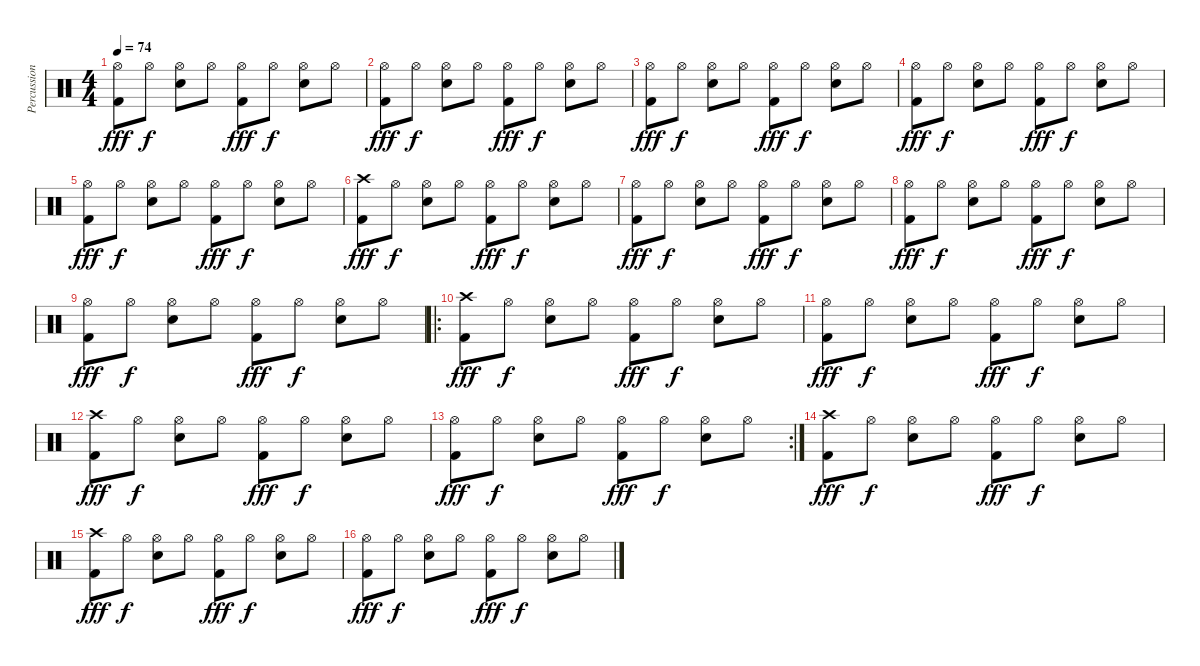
\track ("Percussion" "Percussion") {instrument percussion}
\staff {score}
\articulation defaults
\ts (4 4)
\tempo 74
\clef neutral
\ks c
("Hi-Hat (open)" "Kick (hit) 2").8{dy fff} "Hi-Hat (open)".8{dy f} ("Hi-Hat (open)" "Snare (hit) 2").8 "Hi-Hat (open)".8 ("Hi-Hat (open)" "Kick (hit) 2").8{dy fff} "Hi-Hat (open)".8{dy f} ("Hi-Hat (open)" "Snare (hit) 2").8 "Hi-Hat (open)".8 |
("Hi-Hat (open)" "Kick (hit) 2").8{dy fff} "Hi-Hat (open)".8{dy f} ("Hi-Hat (open)" "Snare (hit) 2").8 "Hi-Hat (open)".8 ("Hi-Hat (open)" "Kick (hit) 2").8{dy fff} "Hi-Hat (open)".8{dy f} ("Hi-Hat (open)" "Snare (hit) 2").8 "Hi-Hat (open)".8 |
("Hi-Hat (open)" "Kick (hit) 2").8{dy fff} "Hi-Hat (open)".8{dy f} ("Hi-Hat (open)" "Snare (hit) 2").8 "Hi-Hat (open)".8 ("Hi-Hat (open)" "Kick (hit) 2").8{dy fff} "Hi-Hat (open)".8{dy f} ("Hi-Hat (open)" "Snare (hit) 2").8 "Hi-Hat (open)".8 |
("Hi-Hat (open)" "Kick (hit) 2").8{dy fff} "Hi-Hat (open)".8{dy f} ("Hi-Hat (open)" "Snare (hit) 2").8 "Hi-Hat (open)".8 ("Hi-Hat (open)" "Kick (hit) 2").8{dy fff} "Hi-Hat (open)".8{dy f} ("Hi-Hat (open)" "Snare (hit) 2").8 "Hi-Hat (open)".8 |
("Hi-Hat (open)" "Kick (hit) 2").8{dy fff} "Hi-Hat (open)".8{dy f} ("Hi-Hat (open)" "Snare (hit) 2").8 "Hi-Hat (open)".8 ("Hi-Hat (open)" "Kick (hit) 2").8{dy fff} "Hi-Hat (open)".8{dy f} ("Hi-Hat (open)" "Snare (hit) 2").8 "Hi-Hat (open)".8 |
("Crash high (hit)" "Kick (hit) 2").8{dy fff} "Hi-Hat (open)".8{dy f} ("Hi-Hat (open)" "Snare (hit) 2").8 "Hi-Hat (open)".8 ("Hi-Hat (open)" "Kick (hit) 2").8{dy fff} "Hi-Hat (open)".8{dy f} ("Hi-Hat (open)" "Snare (hit) 2").8 "Hi-Hat (open)".8 |
("Hi-Hat (open)" "Kick (hit) 2").8{dy fff} "Hi-Hat (open)".8{dy f} ("Hi-Hat (open)" "Snare (hit) 2").8 "Hi-Hat (open)".8 ("Hi-Hat (open)" "Kick (hit) 2").8{dy fff} "Hi-Hat (open)".8{dy f} ("Hi-Hat (open)" "Snare (hit) 2").8 "Hi-Hat (open)".8 |
("Hi-Hat (open)" "Kick (hit) 2").8{dy fff} "Hi-Hat (open)".8{dy f} ("Hi-Hat (open)" "Snare (hit) 2").8 "Hi-Hat (open)".8 ("Hi-Hat (open)" "Kick (hit) 2").8{dy fff} "Hi-Hat (open)".8{dy f} ("Hi-Hat (open)" "Snare (hit) 2").8 "Hi-Hat (open)".8 |
("Hi-Hat (open)" "Kick (hit) 2").8{dy fff} "Hi-Hat (open)".8{dy f} ("Hi-Hat (open)" "Snare (hit) 2").8 "Hi-Hat (open)".8 ("Hi-Hat (open)" "Kick (hit) 2").8{dy fff} "Hi-Hat (open)".8{dy f} ("Hi-Hat (open)" "Snare (hit) 2").8 "Hi-Hat (open)".8 |
\ro
("Crash high (hit)" "Kick (hit) 2").8{dy fff} "Hi-Hat (open)".8{dy f} ("Hi-Hat (open)" "Snare (hit) 2").8 "Hi-Hat (open)".8 ("Hi-Hat (open)" "Kick (hit) 2").8{dy fff} "Hi-Hat (open)".8{dy f} ("Hi-Hat (open)" "Snare (hit) 2").8 "Hi-Hat (open)".8 |
("Hi-Hat (open)" "Kick (hit) 2").8{dy fff} "Hi-Hat (open)".8{dy f} ("Hi-Hat (open)" "Snare (hit) 2").8 "Hi-Hat (open)".8 ("Hi-Hat (open)" "Kick (hit) 2").8{dy fff} "Hi-Hat (open)".8{dy f} ("Hi-Hat (open)" "Snare (hit) 2").8 "Hi-Hat (open)".8 |
("Crash high (hit)" "Kick (hit) 2").8{dy fff} "Hi-Hat (open)".8{dy f} ("Hi-Hat (open)" "Snare (hit) 2").8 "Hi-Hat (open)".8 ("Hi-Hat (open)" "Kick (hit) 2").8{dy fff} "Hi-Hat (open)".8{dy f} ("Hi-Hat (open)" "Snare (hit) 2").8 "Hi-Hat (open)".8 |
\rc 2
("Hi-Hat (open)" "Kick (hit) 2").8{dy fff} "Hi-Hat (open)".8{dy f} ("Hi-Hat (open)" "Snare (hit) 2").8 "Hi-Hat (open)".8 ("Hi-Hat (open)" "Kick (hit) 2").8{dy fff} "Hi-Hat (open)".8{dy f} ("Hi-Hat (open)" "Snare (hit) 2").8 "Hi-Hat (open)".8 |
("Crash high (hit)" "Kick (hit) 2").8{dy fff} "Hi-Hat (open)".8{dy f} ("Hi-Hat (open)" "Snare (hit) 2").8 "Hi-Hat (open)".8 ("Hi-Hat (open)" "Kick (hit) 2").8{dy fff} "Hi-Hat (open)".8{dy f} ("Hi-Hat (open)" "Snare (hit) 2").8 "Hi-Hat (open)".8 |
("Crash high (hit)" "Kick (hit) 2").8{dy fff} "Hi-Hat (open)".8{dy f} ("Hi-Hat (open)" "Snare (hit) 2").8 "Hi-Hat (open)".8 ("Hi-Hat (open)" "Kick (hit) 2").8{dy fff} "Hi-Hat (open)".8{dy f} ("Hi-Hat (open)" "Snare (hit) 2").8 "Hi-Hat (open)".8 |
("Hi-Hat (open)" "Kick (hit) 2").8{dy fff} "Hi-Hat (open)".8{dy f} ("Hi-Hat (open)" "Snare (hit) 2").8 "Hi-Hat (open)".8 ("Hi-Hat (open)" "Kick (hit) 2").8{dy fff} "Hi-Hat (open)".8{dy f} ("Hi-Hat (open)" "Snare (hit) 2").8 "Hi-Hat (open)".8
